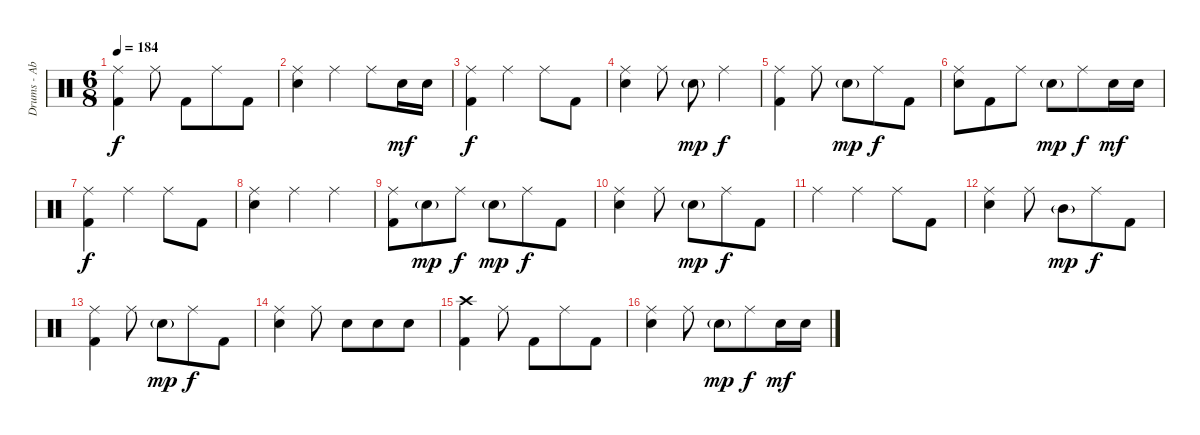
\track ("Drums - Abe Cunningham" "Drums - Ab") {instrument percussion}
\staff {score}
\articulation defaults
\ts (6 8)
\tempo 184
\clef neutral
\ks c
("Ride (middle)" "Kick (hit) 2").4{dy f} "Ride (middle)".8 "Kick (hit) 2".8 "Ride (middle)".8 "Kick (hit) 2".8 |
("Ride (middle)" "Electric Snare (hit)").4 "Ride (middle)".4 "Ride (middle)".8 "Electric Snare (hit)".16{dy mf} "Electric Snare (hit)".16 |
("Ride (middle)" "Kick (hit) 2").4{dy f} "Ride (middle)".4 "Ride (middle)".8 "Kick (hit) 2".8 |
("Ride (middle)" "Electric Snare (hit)").4 "Ride (middle)".8 "Electric Snare (hit)"{g}.8{dy mp} "Ride (middle)".4{dy f} |
("Ride (middle)" "Kick (hit) 2").4 "Ride (middle)".8 "Electric Snare (hit)"{g}.8{dy mp} "Ride (middle)".8{dy f} "Kick (hit) 2".8 |
("Ride (middle)" "Electric Snare (hit)").8 "Kick (hit) 2".8 "Ride (middle)".8 "Electric Snare (hit)"{g}.8{dy mp} "Ride (middle)".8{dy f} "Electric Snare (hit)".16{dy mf} "Electric Snare (hit)".16 |
("Ride (middle)" "Kick (hit) 2").4{dy f} "Ride (middle)".4 "Ride (middle)".8 "Kick (hit) 2".8 |
("Ride (middle)" "Electric Snare (hit)").4 "Ride (middle)".4 "Ride (middle)".4 |
("Ride (middle)" "Kick (hit) 2").8 "Electric Snare (hit)"{g}.8{dy mp} "Ride (middle)".8{dy f} "Electric Snare (hit)"{g}.8{dy mp} "Ride (middle)".8{dy f} "Kick (hit) 2".8 |
("Ride (middle)" "Electric Snare (hit)").4 "Ride (middle)".8 "Electric Snare (hit)"{g}.8{dy mp} "Ride (middle)".8{dy f} "Kick (hit) 2".8 |
"Ride (middle)".4 "Ride (middle)".4 "Ride (middle)".8 "Kick (hit) 2".8 |
("Ride (middle)" "Electric Snare (hit)").4 "Ride (middle)".8 "Mid Tom (hit)"{g}.8{dy mp} "Ride (middle)".8{dy f} "Kick (hit) 2".8 |
("Ride (middle)" "Kick (hit) 2").4 "Ride (middle)".8 "Electric Snare (hit)"{g}.8{dy mp} "Ride (middle)".8{dy f} "Kick (hit) 2".8 |
("Ride (middle)" "Electric Snare (hit)").4 "Ride (middle)".8 "Electric Snare (hit)".8 "Electric Snare (hit)".8 "Electric Snare (hit)".8 |
("Crash high (hit)" "Kick (hit) 2").4 "Ride (middle)".8 "Kick (hit) 2".8 "Ride (middle)".8 "Kick (hit) 2".8 |
("Ride (middle)" "Electric Snare (hit)").4 "Ride (middle)".8 "Electric Snare (hit)"{g}.8{dy mp} "Ride (middle)".8{dy f} "Electric Snare (hit)".16{dy mf} "Electric Snare (hit)".16
